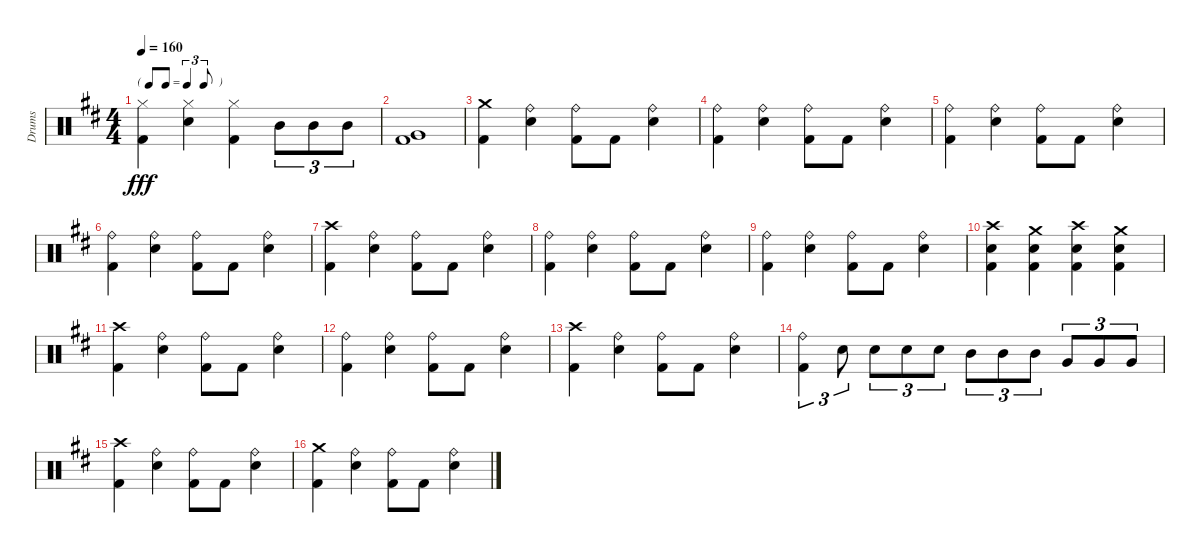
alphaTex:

\track ("Drums" "Drums") {instrument percussion}
\staff {score}
\articulation defaults
\ts (4 4)
\tf triplet8th
\tempo 160
\clef neutral
\ks d
("Hi-Hat (closed)" "Kick (hit) 2").4{dy fff} ("Hi-Hat (closed)" "Electric Snare (hit)").4 ("Hi-Hat (closed)" "Kick (hit) 2").4 "Mid Tom (hit)".8{tu (3 2)} "Mid Tom (hit)".8{tu (3 2)} "Mid Tom (hit)".8{tu (3 2)} |
("Very Low Tom (hit)" "Kick (hit) 2").1 |
("Crash medium (hit)" "Kick (hit) 2").4 ("Ride (bell)" "Electric Snare (hit)").4 ("Ride (bell)" "Kick (hit) 2").8 "Kick (hit) 2".8 ("Ride (bell)" "Electric Snare (hit)").4 |
("Ride (bell)" "Kick (hit) 2").4 ("Ride (bell)" "Electric Snare (hit)").4 ("Ride (bell)" "Kick (hit) 2").8 "Kick (hit) 2".8 ("Ride (bell)" "Electric Snare (hit)").4 |
("Ride (bell)" "Kick (hit) 2").4 ("Ride (bell)" "Electric Snare (hit)").4 ("Ride (bell)" "Kick (hit) 2").8 "Kick (hit) 2".8 ("Ride (bell)" "Electric Snare (hit)").4 |
("Ride (bell)" "Kick (hit) 2").4 ("Ride (bell)" "Electric Snare (hit)").4 ("Ride (bell)" "Kick (hit) 2").8 "Kick (hit) 2".8 ("Ride (bell)" "Electric Snare (hit)").4 |
("Crash high (hit)" "Kick (hit) 2").4 ("Ride (bell)" "Electric Snare (hit)").4 ("Ride (bell)" "Kick (hit) 2").8 "Kick (hit) 2".8 ("Ride (bell)" "Electric Snare (hit)").4 |
("Ride (bell)" "Kick (hit) 2").4 ("Ride (bell)" "Electric Snare (hit)").4 ("Ride (bell)" "Kick (hit) 2").8 "Kick (hit) 2".8 ("Ride (bell)" "Electric Snare (hit)").4 |
("Ride (bell)" "Kick (hit) 2").4 ("Ride (bell)" "Electric Snare (hit)").4 ("Ride (bell)" "Kick (hit) 2").8 "Kick (hit) 2".8 ("Ride (bell)" "Electric Snare (hit)").4 |
("Crash high (hit)" "Electric Snare (hit)" "Kick (hit) 2").4 ("Crash medium (hit)" "Electric Snare (hit)" "Kick (hit) 2").4 ("Crash high (hit)" "Electric Snare (hit)" "Kick (hit) 2").4 ("Crash medium (hit)" "Electric Snare (hit)" "Kick (hit) 2").4 |
("Crash high (hit)" "Kick (hit) 2").4 ("Ride (bell)" "Electric Snare (hit)").4 ("Ride (bell)" "Kick (hit) 2").8 "Kick (hit) 2".8 ("Ride (bell)" "Electric Snare (hit)").4 |
("Ride (bell)" "Kick (hit) 2").4 ("Ride (bell)" "Electric Snare (hit)").4 ("Ride (bell)" "Kick (hit) 2").8 "Kick (hit) 2".8 ("Ride (bell)" "Electric Snare (hit)").4 |
("Crash high (hit)" "Kick (hit) 2").4 ("Ride (bell)" "Electric Snare (hit)").4 ("Ride (bell)" "Kick (hit) 2").8 "Kick (hit) 2".8 ("Ride (bell)" "Electric Snare (hit)").4 |
("Ride (bell)" "Kick (hit) 2").4{tu (3 2)} "Electric Snare (hit)".8{tu (3 2)} "Electric Snare (hit)".8{tu (3 2)} "Electric Snare (hit)".8{tu (3 2)} "Electric Snare (hit)".8{tu (3 2)} "Mid Tom (hit)".8{tu (3 2)} "Mid Tom (hit)".8{tu (3 2)} "Mid Tom (hit)".8{tu (3 2)} "Very Low Tom (hit)".8{tu (3 2)} "Very Low Tom (hit)".8{tu (3 2)} "Very Low Tom (hit)".8{tu (3 2)} |
("Crash high (hit)" "Kick (hit) 2").4 ("Ride (bell)" "Electric Snare (hit)").4 ("Ride (bell)" "Kick (hit) 2").8 "Kick (hit) 2".8 ("Ride (bell)" "Electric Snare (hit)").4 |
("Crash medium (hit)" "Kick (hit) 2").4 ("Ride (bell)" "Electric Snare (hit)").4 ("Ride (bell)" "Kick (hit) 2").8 "Kick (hit) 2".8 ("Ride (bell)" "Electric Snare (hit)").4
